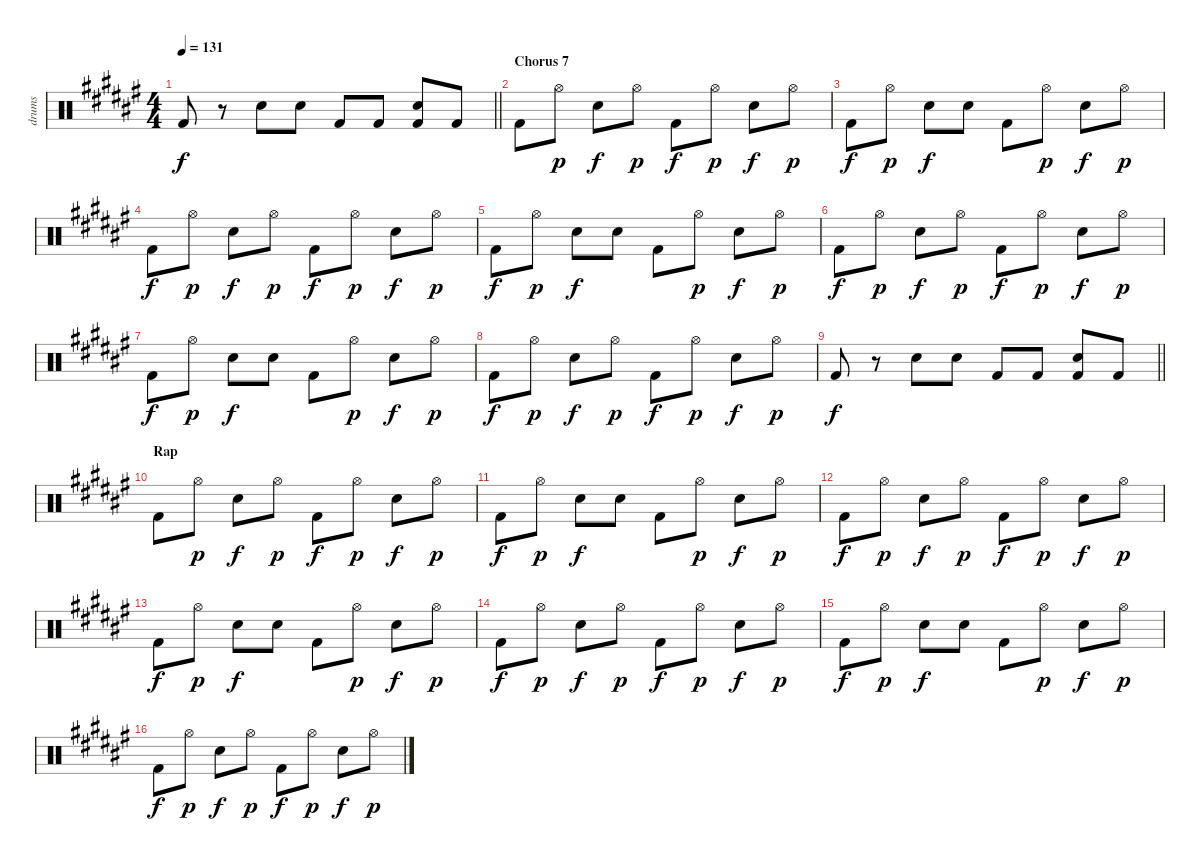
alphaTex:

\track ("drums" "drums") {instrument percussion}
\staff {score}
\articulation defaults
\ts (4 4)
\tempo 131
\clef neutral
\barLineRight lightlight
\ks f# "Kick (hit) 2".8{dy f}
r.8 "Snare (hit) 2".8 "Snare (hit) 2".8 "Kick (hit) 2".8 "Kick (hit) 2".8 ("Snare (hit) 2" "Kick (hit) 2").8 "Kick (hit) 2".8 |
\section ("" "Chorus 7")
"Kick (hit) 2".8 "Hi-Hat (open)".8{dy p} "Snare (hit) 2".8{dy f} "Hi-Hat (open)".8{dy p} "Kick (hit) 2".8{dy f} "Hi-Hat (open)".8{dy p} "Snare (hit) 2".8{dy f} "Hi-Hat (open)".8{dy p} |
"Kick (hit) 2".8{dy f} "Hi-Hat (open)".8{dy p} "Snare (hit) 2".8{dy f} "Snare (hit) 2".8 "Kick (hit) 2".8 "Hi-Hat (open)".8{dy p} "Snare (hit) 2".8{dy f} "Hi-Hat (open)".8{dy p} |
"Kick (hit) 2".8{dy f} "Hi-Hat (open)".8{dy p} "Snare (hit) 2".8{dy f} "Hi-Hat (open)".8{dy p} "Kick (hit) 2".8{dy f} "Hi-Hat (open)".8{dy p} "Snare (hit) 2".8{dy f} "Hi-Hat (open)".8{dy p} |
"Kick (hit) 2".8{dy f} "Hi-Hat (open)".8{dy p} "Snare (hit) 2".8{dy f} "Snare (hit) 2".8 "Kick (hit) 2".8 "Hi-Hat (open)".8{dy p} "Snare (hit) 2".8{dy f} "Hi-Hat (open)".8{dy p} |
"Kick (hit) 2".8{dy f} "Hi-Hat (open)".8{dy p} "Snare (hit) 2".8{dy f} "Hi-Hat (open)".8{dy p} "Kick (hit) 2".8{dy f} "Hi-Hat (open)".8{dy p} "Snare (hit) 2".8{dy f} "Hi-Hat (open)".8{dy p} |
"Kick (hit) 2".8{dy f} "Hi-Hat (open)".8{dy p} "Snare (hit) 2".8{dy f} "Snare (hit) 2".8 "Kick (hit) 2".8 "Hi-Hat (open)".8{dy p} "Snare (hit) 2".8{dy f} "Hi-Hat (open)".8{dy p} |
"Kick (hit) 2".8{dy f} "Hi-Hat (open)".8{dy p} "Snare (hit) 2".8{dy f} "Hi-Hat (open)".8{dy p} "Kick (hit) 2".8{dy f} "Hi-Hat (open)".8{dy p} "Snare (hit) 2".8{dy f} "Hi-Hat (open)".8{dy p} |
\barLineRight lightlight "Kick (hit) 2".8{dy f}
r.8 "Snare (hit) 2".8 "Snare (hit) 2".8 "Kick (hit) 2".8 "Kick (hit) 2".8 ("Snare (hit) 2" "Kick (hit) 2").8 "Kick (hit) 2".8 |
\section ("" "Rap")
"Kick (hit) 2".8 "Hi-Hat (open)".8{dy p} "Snare (hit) 2".8{dy f} "Hi-Hat (open)".8{dy p} "Kick (hit) 2".8{dy f} "Hi-Hat (open)".8{dy p} "Snare (hit) 2".8{dy f} "Hi-Hat (open)".8{dy p} |
"Kick (hit) 2".8{dy f} "Hi-Hat (open)".8{dy p} "Snare (hit) 2".8{dy f} "Snare (hit) 2".8 "Kick (hit) 2".8 "Hi-Hat (open)".8{dy p} "Snare (hit) 2".8{dy f} "Hi-Hat (open)".8{dy p} |
"Kick (hit) 2".8{dy f} "Hi-Hat (open)".8{dy p} "Snare (hit) 2".8{dy f} "Hi-Hat (open)".8{dy p} "Kick (hit) 2".8{dy f} "Hi-Hat (open)".8{dy p} "Snare (hit) 2".8{dy f} "Hi-Hat (open)".8{dy p} |
"Kick (hit) 2".8{dy f} "Hi-Hat (open)".8{dy p} "Snare (hit) 2".8{dy f} "Snare (hit) 2".8 "Kick (hit) 2".8 "Hi-Hat (open)".8{dy p} "Snare (hit) 2".8{dy f} "Hi-Hat (open)".8{dy p} |
"Kick (hit) 2".8{dy f} "Hi-Hat (open)".8{dy p} "Snare (hit) 2".8{dy f} "Hi-Hat (open)".8{dy p} "Kick (hit) 2".8{dy f} "Hi-Hat (open)".8{dy p} "Snare (hit) 2".8{dy f} "Hi-Hat (open)".8{dy p} |
"Kick (hit) 2".8{dy f} "Hi-Hat (open)".8{dy p} "Snare (hit) 2".8{dy f} "Snare (hit) 2".8 "Kick (hit) 2".8 "Hi-Hat (open)".8{dy p} "Snare (hit) 2".8{dy f} "Hi-Hat (open)".8{dy p} |
"Kick (hit) 2".8{dy f} "Hi-Hat (open)".8{dy p} "Snare (hit) 2".8{dy f} "Hi-Hat (open)".8{dy p} "Kick (hit) 2".8{dy f} "Hi-Hat (open)".8{dy p} "Snare (hit) 2".8{dy f} "Hi-Hat (open)".8{dy p}
